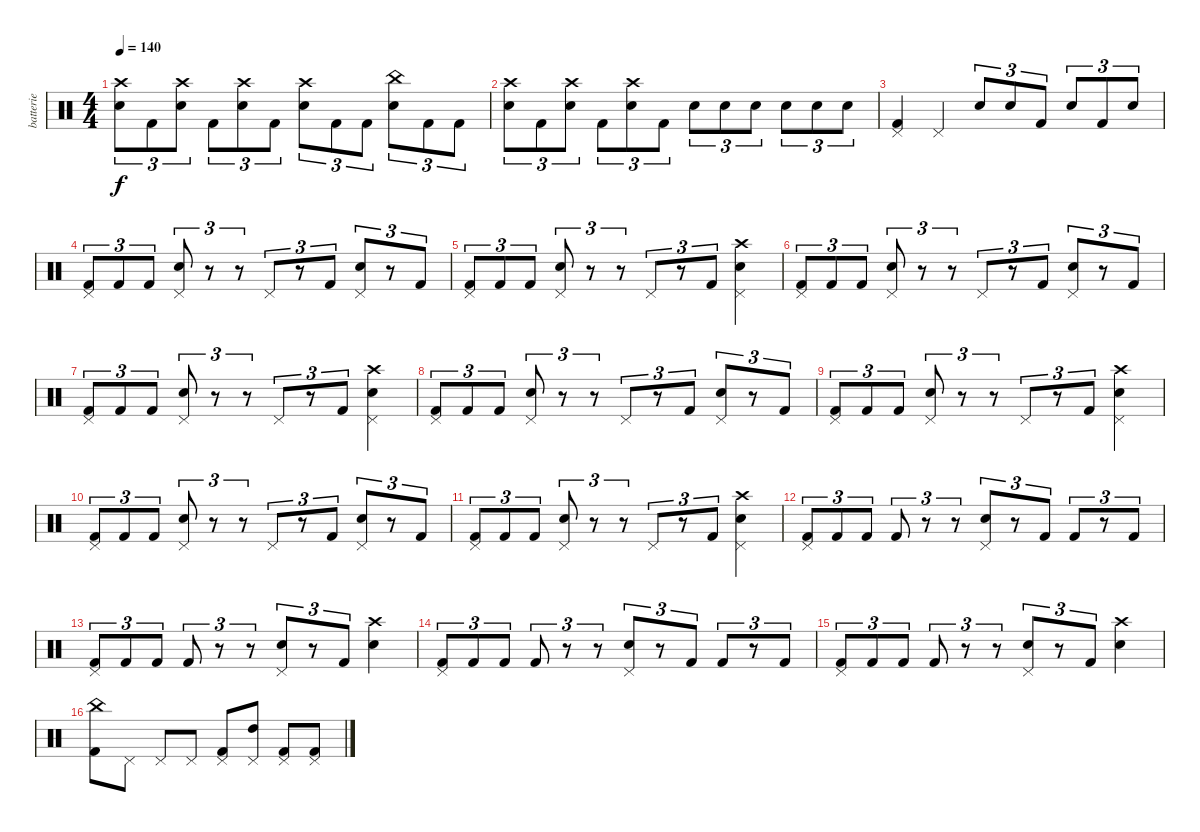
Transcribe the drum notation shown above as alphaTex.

\track ("batterie" "batterie") {instrument percussion}
\staff {score}
\articulation defaults
\ts (4 4)
\tempo 140
\clef neutral
\ks c
("Crash high (hit)" "Snare (hit) 2").8{tu (3 2) dy f} "Kick (hit) 2".8{tu (3 2)} ("Crash high (hit)" "Snare (hit) 2").8{tu (3 2)} "Kick (hit) 2".8{tu (3 2)} ("Crash high (hit)" "Snare (hit) 2").8{tu (3 2)} "Kick (hit) 2".8{tu (3 2)} ("Crash high (hit)" "Snare (hit) 2").8{tu (3 2)} "Kick (hit) 2".8{tu (3 2)} "Kick (hit) 2".8{tu (3 2)} ("China (hit)" "Snare (hit) 2").8{tu (3 2)} "Kick (hit) 2".8{tu (3 2)} "Kick (hit) 2".8{tu (3 2)} |
("Crash high (hit)" "Snare (hit) 2").8{tu (3 2)} "Kick (hit) 2".8{tu (3 2)} ("Crash high (hit)" "Snare (hit) 2").8{tu (3 2)} "Kick (hit) 2".8{tu (3 2)} ("Crash high (hit)" "Snare (hit) 2").8{tu (3 2)} "Kick (hit) 2".8{tu (3 2)} "Snare (hit) 2".8{tu (3 2)} "Snare (hit) 2".8{tu (3 2)} "Snare (hit) 2".8{tu (3 2)} "Snare (hit) 2".8{tu (3 2)} "Snare (hit) 2".8{tu (3 2)} "Snare (hit) 2".8{tu (3 2)} |
("Kick (hit) 2" "Pedal Hi-Hat (hit)").4 "Pedal Hi-Hat (hit)".4 "Snare (hit) 2".8{tu (3 2)} "Snare (hit) 2".8{tu (3 2)} "Kick (hit) 2".8{tu (3 2)} "Snare (hit) 2".8{tu (3 2)} "Kick (hit) 2".8{tu (3 2)} "Snare (hit) 2".8{tu (3 2)} |
("Kick (hit) 2" "Pedal Hi-Hat (hit)").8{tu (3 2)} "Kick (hit) 2".8{tu (3 2)} "Kick (hit) 2".8{tu (3 2)} ("Snare (hit) 2" "Pedal Hi-Hat (hit)").8{tu (3 2)} r.8{tu (3 2)} r.8{tu (3 2)} "Pedal Hi-Hat (hit)".8{tu (3 2)} r.8{tu (3 2)} "Kick (hit) 2".8{tu (3 2)} ("Snare (hit) 2" "Pedal Hi-Hat (hit)").8{tu (3 2)} r.8{tu (3 2)} "Kick (hit) 2".8{tu (3 2)} |
("Kick (hit) 2" "Pedal Hi-Hat (hit)").8{tu (3 2)} "Kick (hit) 2".8{tu (3 2)} "Kick (hit) 2".8{tu (3 2)} ("Snare (hit) 2" "Pedal Hi-Hat (hit)").8{tu (3 2)} r.8{tu (3 2)} r.8{tu (3 2)} "Pedal Hi-Hat (hit)".8{tu (3 2)} r.8{tu (3 2)} "Kick (hit) 2".8{tu (3 2)} ("Crash high (hit)" "Snare (hit) 2" "Pedal Hi-Hat (hit)").4 |
("Kick (hit) 2" "Pedal Hi-Hat (hit)").8{tu (3 2)} "Kick (hit) 2".8{tu (3 2)} "Kick (hit) 2".8{tu (3 2)} ("Snare (hit) 2" "Pedal Hi-Hat (hit)").8{tu (3 2)} r.8{tu (3 2)} r.8{tu (3 2)} "Pedal Hi-Hat (hit)".8{tu (3 2)} r.8{tu (3 2)} "Kick (hit) 2".8{tu (3 2)} ("Snare (hit) 2" "Pedal Hi-Hat (hit)").8{tu (3 2)} r.8{tu (3 2)} "Kick (hit) 2".8{tu (3 2)} |
("Kick (hit) 2" "Pedal Hi-Hat (hit)").8{tu (3 2)} "Kick (hit) 2".8{tu (3 2)} "Kick (hit) 2".8{tu (3 2)} ("Snare (hit) 2" "Pedal Hi-Hat (hit)").8{tu (3 2)} r.8{tu (3 2)} r.8{tu (3 2)} "Pedal Hi-Hat (hit)".8{tu (3 2)} r.8{tu (3 2)} "Kick (hit) 2".8{tu (3 2)} ("Crash high (hit)" "Snare (hit) 2" "Pedal Hi-Hat (hit)").4 |
("Kick (hit) 2" "Pedal Hi-Hat (hit)").8{tu (3 2)} "Kick (hit) 2".8{tu (3 2)} "Kick (hit) 2".8{tu (3 2)} ("Snare (hit) 2" "Pedal Hi-Hat (hit)").8{tu (3 2)} r.8{tu (3 2)} r.8{tu (3 2)} "Pedal Hi-Hat (hit)".8{tu (3 2)} r.8{tu (3 2)} "Kick (hit) 2".8{tu (3 2)} ("Snare (hit) 2" "Pedal Hi-Hat (hit)").8{tu (3 2)} r.8{tu (3 2)} "Kick (hit) 2".8{tu (3 2)} |
("Kick (hit) 2" "Pedal Hi-Hat (hit)").8{tu (3 2)} "Kick (hit) 2".8{tu (3 2)} "Kick (hit) 2".8{tu (3 2)} ("Snare (hit) 2" "Pedal Hi-Hat (hit)").8{tu (3 2)} r.8{tu (3 2)} r.8{tu (3 2)} "Pedal Hi-Hat (hit)".8{tu (3 2)} r.8{tu (3 2)} "Kick (hit) 2".8{tu (3 2)} ("Crash high (hit)" "Snare (hit) 2" "Pedal Hi-Hat (hit)").4 |
("Kick (hit) 2" "Pedal Hi-Hat (hit)").8{tu (3 2)} "Kick (hit) 2".8{tu (3 2)} "Kick (hit) 2".8{tu (3 2)} ("Snare (hit) 2" "Pedal Hi-Hat (hit)").8{tu (3 2)} r.8{tu (3 2)} r.8{tu (3 2)} "Pedal Hi-Hat (hit)".8{tu (3 2)} r.8{tu (3 2)} "Kick (hit) 2".8{tu (3 2)} ("Snare (hit) 2" "Pedal Hi-Hat (hit)").8{tu (3 2)} r.8{tu (3 2)} "Kick (hit) 2".8{tu (3 2)} |
("Kick (hit) 2" "Pedal Hi-Hat (hit)").8{tu (3 2)} "Kick (hit) 2".8{tu (3 2)} "Kick (hit) 2".8{tu (3 2)} ("Snare (hit) 2" "Pedal Hi-Hat (hit)").8{tu (3 2)} r.8{tu (3 2)} r.8{tu (3 2)} "Pedal Hi-Hat (hit)".8{tu (3 2)} r.8{tu (3 2)} "Kick (hit) 2".8{tu (3 2)} ("Crash high (hit)" "Snare (hit) 2" "Pedal Hi-Hat (hit)").4 |
("Kick (hit) 2" "Pedal Hi-Hat (hit)").8{tu (3 2)} "Kick (hit) 2".8{tu (3 2)} "Kick (hit) 2".8{tu (3 2)} "Kick (hit) 2".8{tu (3 2)} r.8{tu (3 2)} r.8{tu (3 2)} ("Snare (hit) 2" "Pedal Hi-Hat (hit)").8{tu (3 2)} r.8{tu (3 2)} "Kick (hit) 2".8{tu (3 2)} "Kick (hit) 2".8{tu (3 2)} r.8{tu (3 2)} "Kick (hit) 2".8{tu (3 2)} |
("Kick (hit) 2" "Pedal Hi-Hat (hit)").8{tu (3 2)} "Kick (hit) 2".8{tu (3 2)} "Kick (hit) 2".8{tu (3 2)} "Kick (hit) 2".8{tu (3 2)} r.8{tu (3 2)} r.8{tu (3 2)} ("Snare (hit) 2" "Pedal Hi-Hat (hit)").8{tu (3 2)} r.8{tu (3 2)} "Kick (hit) 2".8{tu (3 2)} ("Crash high (hit)" "Snare (hit) 2").4 |
("Kick (hit) 2" "Pedal Hi-Hat (hit)").8{tu (3 2)} "Kick (hit) 2".8{tu (3 2)} "Kick (hit) 2".8{tu (3 2)} "Kick (hit) 2".8{tu (3 2)} r.8{tu (3 2)} r.8{tu (3 2)} ("Snare (hit) 2" "Pedal Hi-Hat (hit)").8{tu (3 2)} r.8{tu (3 2)} "Kick (hit) 2".8{tu (3 2)} "Kick (hit) 2".8{tu (3 2)} r.8{tu (3 2)} "Kick (hit) 2".8{tu (3 2)} |
("Kick (hit) 2" "Pedal Hi-Hat (hit)").8{tu (3 2)} "Kick (hit) 2".8{tu (3 2)} "Kick (hit) 2".8{tu (3 2)} "Kick (hit) 2".8{tu (3 2)} r.8{tu (3 2)} r.8{tu (3 2)} ("Snare (hit) 2" "Pedal Hi-Hat (hit)").8{tu (3 2)} r.8{tu (3 2)} "Kick (hit) 2".8{tu (3 2)} ("Crash high (hit)" "Snare (hit) 2").4 |
("China (hit)" "Kick (hit) 2").8 "Pedal Hi-Hat (hit)".8 "Pedal Hi-Hat (hit)".8 "Pedal Hi-Hat (hit)".8 ("Kick (hit) 2" "Pedal Hi-Hat (hit)").8 ("High Tom (hit)" "Pedal Hi-Hat (hit)").8 ("Kick (hit) 2" "Pedal Hi-Hat (hit)").8 ("Kick (hit) 2" "Pedal Hi-Hat (hit)").8
